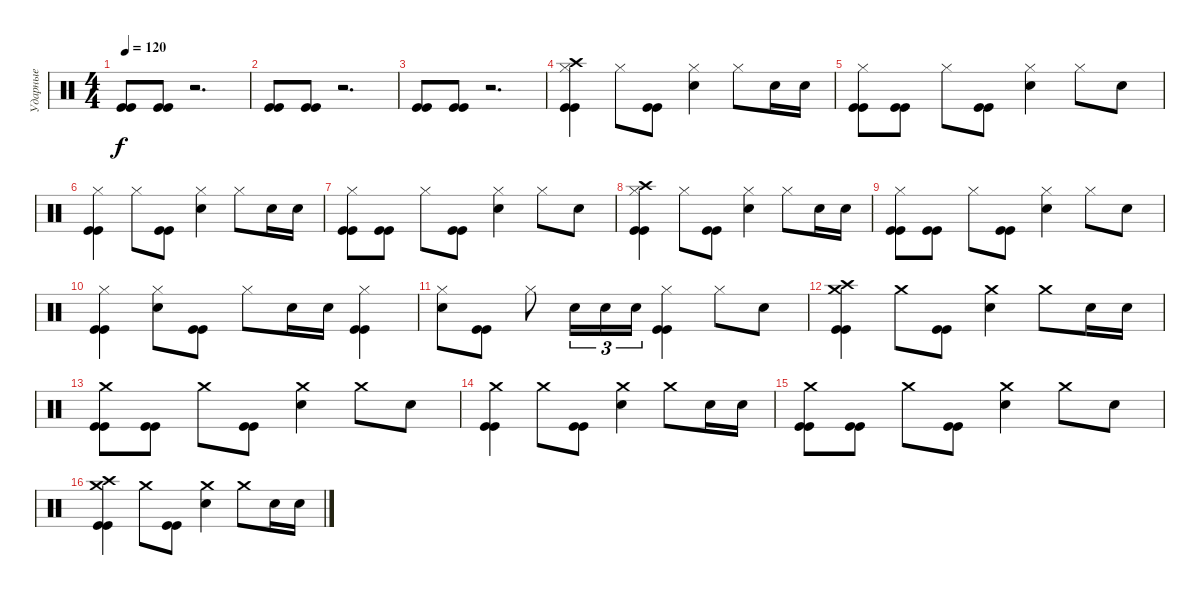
\track ("Ударные" "Ударные") {instrument percussion}
\staff {score}
\articulation defaults
\ts (4 4)
\tempo 120
\clef neutral
\ks c
("Kick (hit)" "Kick (hit)").8{dy f} ("Kick (hit)" "Kick (hit)").8 r.2{d} |
("Kick (hit)" "Kick (hit)").8 ("Kick (hit)" "Kick (hit)").8 r.2{d} |
("Kick (hit)" "Kick (hit)").8 ("Kick (hit)" "Kick (hit)").8 r.2{d} |
("Crash high (hit)" "Hi-Hat (closed)" "Kick (hit)" "Kick (hit)").4 "Hi-Hat (closed)".8 ("Kick (hit)" "Kick (hit)").8 ("Hi-Hat (closed)" "Electric Snare (hit)").4 "Hi-Hat (closed)".8 "Electric Snare (hit)".16 "Electric Snare (hit)".16 |
("Hi-Hat (closed)" "Kick (hit)" "Kick (hit)").8 ("Kick (hit)" "Kick (hit)").8 "Hi-Hat (closed)".8 ("Kick (hit)" "Kick (hit)").8 ("Hi-Hat (closed)" "Electric Snare (hit)").4 "Hi-Hat (closed)".8 "Electric Snare (hit)".8 |
("Hi-Hat (closed)" "Kick (hit)" "Kick (hit)").4 "Hi-Hat (closed)".8 ("Kick (hit)" "Kick (hit)").8 ("Hi-Hat (closed)" "Electric Snare (hit)").4 "Hi-Hat (closed)".8 "Electric Snare (hit)".16 "Electric Snare (hit)".16 |
("Hi-Hat (closed)" "Kick (hit)" "Kick (hit)").8 ("Kick (hit)" "Kick (hit)").8 "Hi-Hat (closed)".8 ("Kick (hit)" "Kick (hit)").8 ("Hi-Hat (closed)" "Electric Snare (hit)").4 "Hi-Hat (closed)".8 "Electric Snare (hit)".8 |
("Crash high (hit)" "Hi-Hat (closed)" "Kick (hit)" "Kick (hit)").4 "Hi-Hat (closed)".8 ("Kick (hit)" "Kick (hit)").8 ("Hi-Hat (closed)" "Electric Snare (hit)").4 "Hi-Hat (closed)".8 "Electric Snare (hit)".16 "Electric Snare (hit)".16 |
("Hi-Hat (closed)" "Kick (hit)" "Kick (hit)").8 ("Kick (hit)" "Kick (hit)").8 "Hi-Hat (closed)".8 ("Kick (hit)" "Kick (hit)").8 ("Hi-Hat (closed)" "Electric Snare (hit)").4 "Hi-Hat (closed)".8 "Electric Snare (hit)".8 |
("Hi-Hat (closed)" "Kick (hit)" "Kick (hit)").4 ("Hi-Hat (closed)" "Electric Snare (hit)").8 ("Kick (hit)" "Kick (hit)").8 "Hi-Hat (closed)".8 "Electric Snare (hit)".16 "Electric Snare (hit)".16 ("Hi-Hat (closed)" "Kick (hit)" "Kick (hit)").4 |
("Hi-Hat (closed)" "Electric Snare (hit)").8 ("Kick (hit)" "Kick (hit)").8 "Hi-Hat (closed)".8 "Electric Snare (hit)".16{tu (3 2)} "Electric Snare (hit)".16{tu (3 2)} "Electric Snare (hit)".16{tu (3 2)} ("Hi-Hat (closed)" "Kick (hit)" "Kick (hit)").4 "Hi-Hat (closed)".8 "Electric Snare (hit)".8 |
("Crash high (hit)" "Crash medium (hit)" "Kick (hit)" "Kick (hit)").4 "Crash medium (hit)".8 ("Kick (hit)" "Kick (hit)").8 ("Crash medium (hit)" "Electric Snare (hit)").4 "Crash medium (hit)".8 "Electric Snare (hit)".16 "Electric Snare (hit)".16 |
("Crash medium (hit)" "Kick (hit)" "Kick (hit)").8 ("Kick (hit)" "Kick (hit)").8 "Crash medium (hit)".8 ("Kick (hit)" "Kick (hit)").8 ("Crash medium (hit)" "Electric Snare (hit)").4 "Crash medium (hit)".8 "Electric Snare (hit)".8 |
("Crash medium (hit)" "Kick (hit)" "Kick (hit)").4 "Crash medium (hit)".8 ("Kick (hit)" "Kick (hit)").8 ("Crash medium (hit)" "Electric Snare (hit)").4 "Crash medium (hit)".8 "Electric Snare (hit)".16 "Electric Snare (hit)".16 |
("Crash medium (hit)" "Kick (hit)" "Kick (hit)").8 ("Kick (hit)" "Kick (hit)").8 "Crash medium (hit)".8 ("Kick (hit)" "Kick (hit)").8 ("Crash medium (hit)" "Electric Snare (hit)").4 "Crash medium (hit)".8 "Electric Snare (hit)".8 |
("Crash high (hit)" "Crash medium (hit)" "Kick (hit)" "Kick (hit)").4 "Crash medium (hit)".8 ("Kick (hit)" "Kick (hit)").8 ("Crash medium (hit)" "Electric Snare (hit)").4 "Crash medium (hit)".8 "Electric Snare (hit)".16 "Electric Snare (hit)".16
